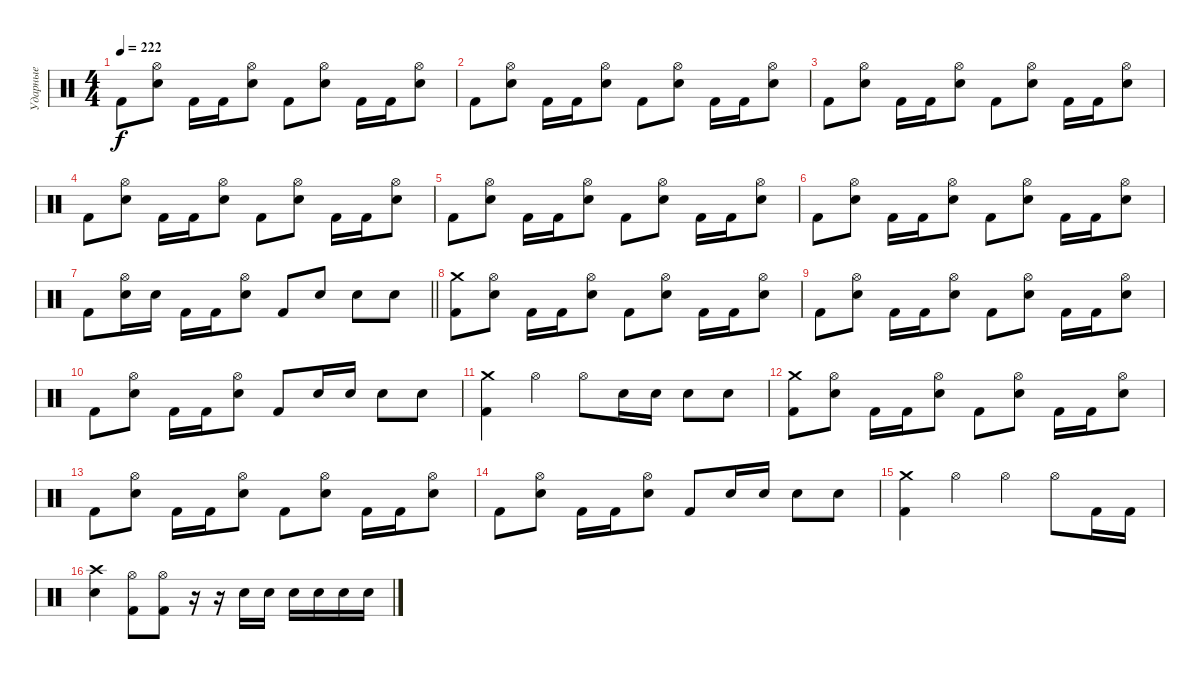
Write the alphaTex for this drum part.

\track ("Ударные" "Ударные") {instrument percussion}
\staff {score}
\articulation defaults
\ts (4 4)
\tempo 222
\clef neutral
\ks c "Kick (hit) 2".8{dy f}
("Electric Snare (hit)" "Hi-Hat (open)").8 "Kick (hit) 2".16 "Kick (hit) 2".16 ("Electric Snare (hit)" "Hi-Hat (open)").8 "Kick (hit) 2".8 ("Electric Snare (hit)" "Hi-Hat (open)").8 "Kick (hit) 2".16 "Kick (hit) 2".16 ("Electric Snare (hit)" "Hi-Hat (open)").8 |
"Kick (hit) 2".8 ("Electric Snare (hit)" "Hi-Hat (open)").8 "Kick (hit) 2".16 "Kick (hit) 2".16 ("Electric Snare (hit)" "Hi-Hat (open)").8 "Kick (hit) 2".8 ("Electric Snare (hit)" "Hi-Hat (open)").8 "Kick (hit) 2".16 "Kick (hit) 2".16 ("Electric Snare (hit)" "Hi-Hat (open)").8 |
"Kick (hit) 2".8 ("Electric Snare (hit)" "Hi-Hat (open)").8 "Kick (hit) 2".16 "Kick (hit) 2".16 ("Electric Snare (hit)" "Hi-Hat (open)").8 "Kick (hit) 2".8 ("Electric Snare (hit)" "Hi-Hat (open)").8 "Kick (hit) 2".16 "Kick (hit) 2".16 ("Electric Snare (hit)" "Hi-Hat (open)").8 |
"Kick (hit) 2".8 ("Electric Snare (hit)" "Hi-Hat (open)").8 "Kick (hit) 2".16 "Kick (hit) 2".16 ("Electric Snare (hit)" "Hi-Hat (open)").8 "Kick (hit) 2".8 ("Electric Snare (hit)" "Hi-Hat (open)").8 "Kick (hit) 2".16 "Kick (hit) 2".16 ("Electric Snare (hit)" "Hi-Hat (open)").8 |
"Kick (hit) 2".8 ("Electric Snare (hit)" "Hi-Hat (open)").8 "Kick (hit) 2".16 "Kick (hit) 2".16 ("Electric Snare (hit)" "Hi-Hat (open)").8 "Kick (hit) 2".8 ("Electric Snare (hit)" "Hi-Hat (open)").8 "Kick (hit) 2".16 "Kick (hit) 2".16 ("Electric Snare (hit)" "Hi-Hat (open)").8 |
"Kick (hit) 2".8 ("Electric Snare (hit)" "Hi-Hat (open)").8 "Kick (hit) 2".16 "Kick (hit) 2".16 ("Electric Snare (hit)" "Hi-Hat (open)").8 "Kick (hit) 2".8 ("Electric Snare (hit)" "Hi-Hat (open)").8 "Kick (hit) 2".16 "Kick (hit) 2".16 ("Electric Snare (hit)" "Hi-Hat (open)").8 |
\barLineRight lightlight "Kick (hit) 2".8
("Electric Snare (hit)" "Hi-Hat (open)").16 "Electric Snare (hit)".16 "Kick (hit) 2".16 "Kick (hit) 2".16 ("Electric Snare (hit)" "Hi-Hat (open)").8 "Kick (hit) 2".8 "Electric Snare (hit)".8 "Electric Snare (hit)".8 "Electric Snare (hit)".8 |
("Kick (hit) 2" "Crash medium (hit)").8 ("Electric Snare (hit)" "Hi-Hat (open)").8 "Kick (hit) 2".16 "Kick (hit) 2".16 ("Electric Snare (hit)" "Hi-Hat (open)").8 "Kick (hit) 2".8 ("Electric Snare (hit)" "Hi-Hat (open)").8 "Kick (hit) 2".16 "Kick (hit) 2".16 ("Electric Snare (hit)" "Hi-Hat (open)").8 |
"Kick (hit) 2".8 ("Electric Snare (hit)" "Hi-Hat (open)").8 "Kick (hit) 2".16 "Kick (hit) 2".16 ("Electric Snare (hit)" "Hi-Hat (open)").8 "Kick (hit) 2".8 ("Electric Snare (hit)" "Hi-Hat (open)").8 "Kick (hit) 2".16 "Kick (hit) 2".16 ("Electric Snare (hit)" "Hi-Hat (open)").8 |
"Kick (hit) 2".8 ("Electric Snare (hit)" "Hi-Hat (open)").8 "Kick (hit) 2".16 "Kick (hit) 2".16 ("Electric Snare (hit)" "Hi-Hat (open)").8 "Kick (hit) 2".8 "Electric Snare (hit)".16 "Electric Snare (hit)".16 "Electric Snare (hit)".8 "Electric Snare (hit)".8 |
("Kick (hit) 2" "Crash medium (hit)").4 "Hi-Hat (open)".4 "Hi-Hat (open)".8 "Electric Snare (hit)".16 "Electric Snare (hit)".16 "Electric Snare (hit)".8 "Electric Snare (hit)".8 |
("Kick (hit) 2" "Crash medium (hit)").8 ("Electric Snare (hit)" "Hi-Hat (open)").8 "Kick (hit) 2".16 "Kick (hit) 2".16 ("Electric Snare (hit)" "Hi-Hat (open)").8 "Kick (hit) 2".8 ("Electric Snare (hit)" "Hi-Hat (open)").8 "Kick (hit) 2".16 "Kick (hit) 2".16 ("Electric Snare (hit)" "Hi-Hat (open)").8 |
"Kick (hit) 2".8 ("Electric Snare (hit)" "Hi-Hat (open)").8 "Kick (hit) 2".16 "Kick (hit) 2".16 ("Electric Snare (hit)" "Hi-Hat (open)").8 "Kick (hit) 2".8 ("Electric Snare (hit)" "Hi-Hat (open)").8 "Kick (hit) 2".16 "Kick (hit) 2".16 ("Electric Snare (hit)" "Hi-Hat (open)").8 |
"Kick (hit) 2".8 ("Electric Snare (hit)" "Hi-Hat (open)").8 "Kick (hit) 2".16 "Kick (hit) 2".16 ("Electric Snare (hit)" "Hi-Hat (open)").8 "Kick (hit) 2".8 "Electric Snare (hit)".16 "Electric Snare (hit)".16 "Electric Snare (hit)".8 "Electric Snare (hit)".8 |
("Kick (hit) 2" "Crash medium (hit)").4 "Hi-Hat (open)".4 "Hi-Hat (open)".4 "Hi-Hat (open)".8 "Kick (hit) 2".16 "Kick (hit) 2".16 |
("Crash high (hit)" "Electric Snare (hit)").4 ("Hi-Hat (open)" "Kick (hit) 2").8 ("Hi-Hat (open)" "Kick (hit) 2").8 r.16 r.16 "Electric Snare (hit)".16 "Electric Snare (hit)".16 "Electric Snare (hit)".16 "Electric Snare (hit)".16 "Electric Snare (hit)".16 "Electric Snare (hit)".16
